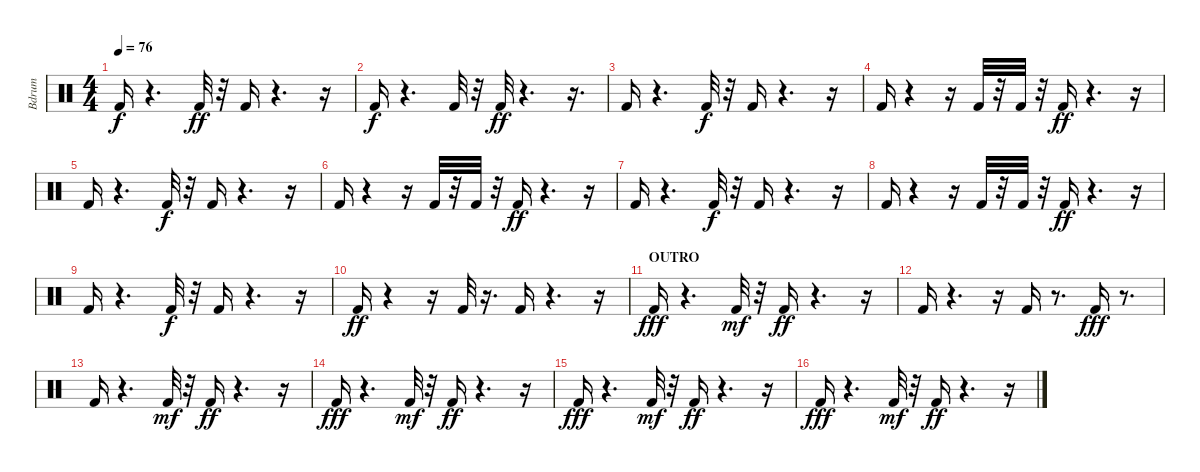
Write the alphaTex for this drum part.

\track ("Bdrum" "Bdrum") {instrument percussion}
\staff {score}
\articulation defaults
\ts (4 4)
\tempo 76
\clef neutral
\ks c "Kick (hit) 2".16{dy f}
r.4{d} "Kick (hit) 2".32{dy ff} r.32 "Kick (hit) 2".16 r.4{d} r.16 |
"Kick (hit) 2".16{dy f} r.4{d} "Kick (hit) 2".32 r.32 "Kick (hit) 2".32{dy ff} r.4{d} r.16{d} |
"Kick (hit) 2".16 r.4{d} "Kick (hit) 2".32{dy f} r.32 "Kick (hit) 2".16 r.4{d} r.16 |
"Kick (hit) 2".16 r.4 r.16 "Kick (hit) 2".32 r.32 "Kick (hit) 2".32 r.32 "Kick (hit) 2".16{dy ff} r.4{d} r.16 |
"Kick (hit) 2".16 r.4{d} "Kick (hit) 2".32{dy f} r.32 "Kick (hit) 2".16 r.4{d} r.16 |
"Kick (hit) 2".16 r.4 r.16 "Kick (hit) 2".32 r.32 "Kick (hit) 2".32 r.32 "Kick (hit) 2".16{dy ff} r.4{d} r.16 |
"Kick (hit) 2".16 r.4{d} "Kick (hit) 2".32{dy f} r.32 "Kick (hit) 2".16 r.4{d} r.16 |
"Kick (hit) 2".16 r.4 r.16 "Kick (hit) 2".32 r.32 "Kick (hit) 2".32 r.32 "Kick (hit) 2".16{dy ff} r.4{d} r.16 |
"Kick (hit) 2".16 r.4{d} "Kick (hit) 2".32{dy f} r.32 "Kick (hit) 2".16 r.4{d} r.16 |
"Kick (hit) 2".16{dy ff} r.4 r.16 "Kick (hit) 2".32 r.16{d} "Kick (hit) 2".16 r.4{d} r.16 |
\section ("" "OUTRO")
"Kick (hit) 2".16{dy fff} r.4{d} "Kick (hit) 2".32{dy mf} r.32 "Kick (hit) 2".16{dy ff} r.4{d} r.16 |
"Kick (hit) 2".16 r.4{d} r.16 "Kick (hit) 2".16 r.8{d} "Kick (hit) 2".16{dy fff} r.8{d} |
"Kick (hit) 2".16 r.4{d} "Kick (hit) 2".32{dy mf} r.32 "Kick (hit) 2".16{dy ff} r.4{d} r.16 |
"Kick (hit) 2".16{dy fff} r.4{d} "Kick (hit) 2".32{dy mf} r.32 "Kick (hit) 2".16{dy ff} r.4{d} r.16 |
"Kick (hit) 2".16{dy fff} r.4{d} "Kick (hit) 2".32{dy mf} r.32 "Kick (hit) 2".16{dy ff} r.4{d} r.16 |
"Kick (hit) 2".16{dy fff} r.4{d} "Kick (hit) 2".32{dy mf} r.32 "Kick (hit) 2".16{dy ff} r.4{d} r.16
